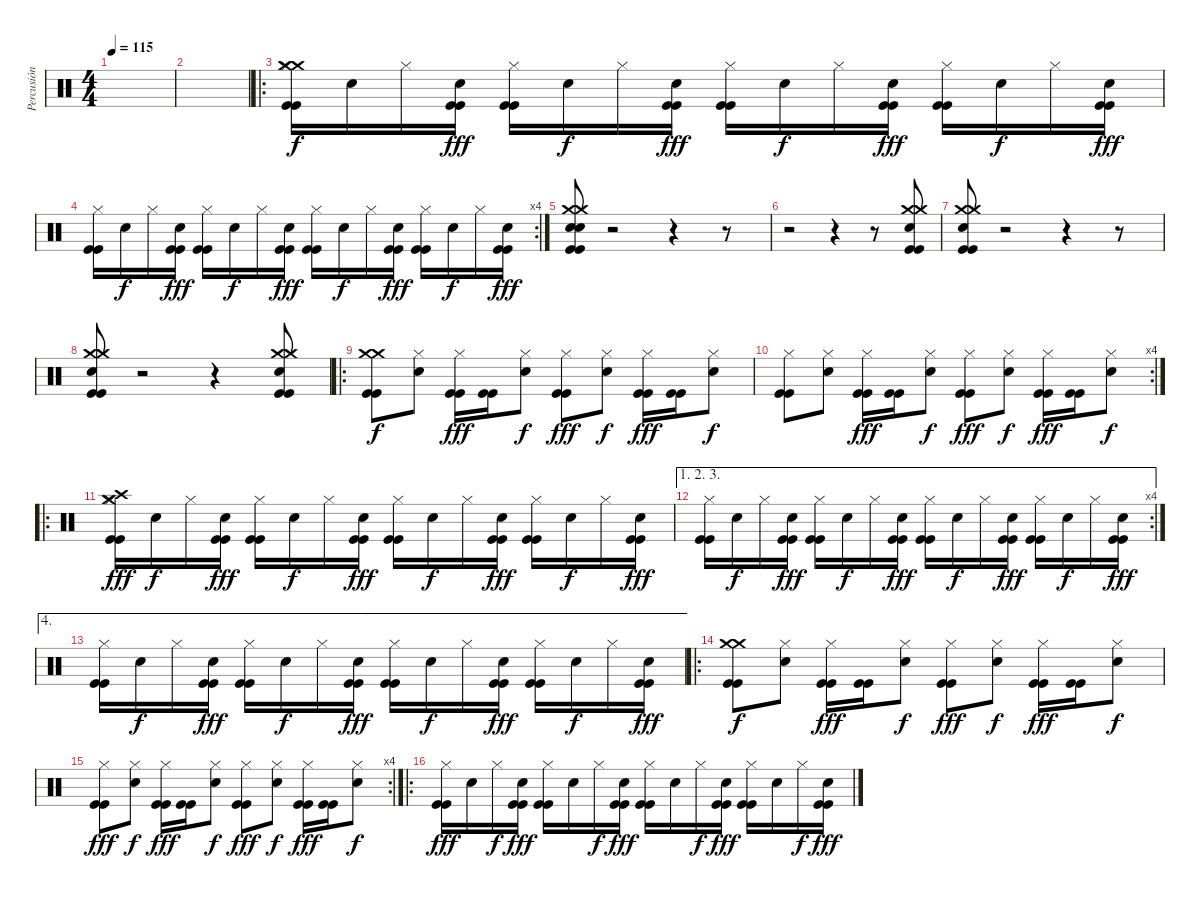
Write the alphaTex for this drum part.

\track ("Percusión" "Percusión") {instrument percussion}
\staff {score}
\articulation defaults
\ts (4 4)
\tempo 115
\clef neutral
\ks c
|
|
\ro
("Kick (hit)" "Kick (hit)" "Crash medium (hit)" "Crash medium (hit)" "Hi-Hat (closed)").16 "Electric Snare (hit)".16{dy f} "Hi-Hat (closed)".16 ("Kick (hit)" "Kick (hit)" "Electric Snare (hit)").16{dy fff} ("Kick (hit)" "Kick (hit)" "Hi-Hat (closed)").16 "Electric Snare (hit)".16{dy f} "Hi-Hat (closed)".16 ("Kick (hit)" "Kick (hit)" "Electric Snare (hit)").16{dy fff} ("Kick (hit)" "Kick (hit)" "Hi-Hat (closed)").16 "Electric Snare (hit)".16{dy f} "Hi-Hat (closed)".16 ("Kick (hit)" "Kick (hit)" "Electric Snare (hit)").16{dy fff} ("Kick (hit)" "Kick (hit)" "Hi-Hat (closed)").16 "Electric Snare (hit)".16{dy f} "Hi-Hat (closed)".16 ("Kick (hit)" "Kick (hit)" "Electric Snare (hit)").16{dy fff} |
\rc 4
("Kick (hit)" "Kick (hit)" "Hi-Hat (closed)").16 "Electric Snare (hit)".16{dy f} "Hi-Hat (closed)".16 ("Kick (hit)" "Kick (hit)" "Electric Snare (hit)").16{dy fff} ("Kick (hit)" "Kick (hit)" "Hi-Hat (closed)").16 "Electric Snare (hit)".16{dy f} "Hi-Hat (closed)".16 ("Kick (hit)" "Kick (hit)" "Electric Snare (hit)").16{dy fff} ("Kick (hit)" "Kick (hit)" "Hi-Hat (closed)").16 "Electric Snare (hit)".16{dy f} "Hi-Hat (closed)".16 ("Kick (hit)" "Kick (hit)" "Electric Snare (hit)").16{dy fff} ("Kick (hit)" "Kick (hit)" "Hi-Hat (closed)").16 "Electric Snare (hit)".16{dy f} "Hi-Hat (closed)".16 ("Kick (hit)" "Kick (hit)" "Electric Snare (hit)").16{dy fff} |
("Kick (hit)" "Kick (hit)" "Crash medium (hit)" "Crash medium (hit)" "Electric Snare (hit)" "Electric Snare (hit)").8 r.2 r.4 r.8 |
r.2 r.4 r.8 ("Kick (hit)" "Kick (hit)" "Crash medium (hit)" "Crash medium (hit)" "Electric Snare (hit)").8 |
("Kick (hit)" "Kick (hit)" "Crash medium (hit)" "Crash medium (hit)" "Electric Snare (hit)").8 r.2 r.4 r.8 |
("Kick (hit)" "Kick (hit)" "Crash medium (hit)" "Crash medium (hit)" "Electric Snare (hit)").8 r.2 r.4 ("Kick (hit)" "Kick (hit)" "Crash medium (hit)" "Crash medium (hit)" "Electric Snare (hit)").8 |
\ro
("Kick (hit)" "Kick (hit)" "Crash medium (hit)" "Crash medium (hit)").8{dy f} ("Hi-Hat (closed)" "Electric Snare (hit)").8 ("Kick (hit)" "Kick (hit)" "Hi-Hat (closed)").16{dy fff} ("Kick (hit)" "Kick (hit)").16 ("Hi-Hat (closed)" "Electric Snare (hit)").8{dy f} ("Kick (hit)" "Kick (hit)" "Hi-Hat (closed)").8{dy fff} ("Hi-Hat (closed)" "Electric Snare (hit)").8{dy f} ("Kick (hit)" "Kick (hit)" "Hi-Hat (closed)").16{dy fff} ("Kick (hit)" "Kick (hit)").16 ("Hi-Hat (closed)" "Electric Snare (hit)").8{dy f} |
\rc 4
("Kick (hit)" "Kick (hit)" "Hi-Hat (closed)").8 ("Hi-Hat (closed)" "Electric Snare (hit)").8 ("Kick (hit)" "Kick (hit)" "Hi-Hat (closed)").16{dy fff} ("Kick (hit)" "Kick (hit)").16 ("Hi-Hat (closed)" "Electric Snare (hit)").8{dy f} ("Kick (hit)" "Kick (hit)" "Hi-Hat (closed)").8{dy fff} ("Hi-Hat (closed)" "Electric Snare (hit)").8{dy f} ("Kick (hit)" "Kick (hit)" "Hi-Hat (closed)").16{dy fff} ("Kick (hit)" "Kick (hit)").16 ("Hi-Hat (closed)" "Electric Snare (hit)").8{dy f} |
\ro
("Kick (hit)" "Kick (hit)" "Crash medium (hit)" "Crash high (hit)" "Hi-Hat (closed)").16{dy fff} "Electric Snare (hit)".16{dy f} "Hi-Hat (closed)".16 ("Kick (hit)" "Kick (hit)" "Electric Snare (hit)").16{dy fff} ("Kick (hit)" "Kick (hit)" "Hi-Hat (closed)").16 "Electric Snare (hit)".16{dy f} "Hi-Hat (closed)".16 ("Kick (hit)" "Kick (hit)" "Electric Snare (hit)").16{dy fff} ("Kick (hit)" "Kick (hit)" "Hi-Hat (closed)").16 "Electric Snare (hit)".16{dy f} "Hi-Hat (closed)".16 ("Kick (hit)" "Kick (hit)" "Electric Snare (hit)").16{dy fff} ("Kick (hit)" "Kick (hit)" "Hi-Hat (closed)").16 "Electric Snare (hit)".16{dy f} "Hi-Hat (closed)".16 ("Kick (hit)" "Kick (hit)" "Electric Snare (hit)").16{dy fff} |
\ae (1 2 3)
\rc 4
("Kick (hit)" "Kick (hit)" "Hi-Hat (closed)").16 "Electric Snare (hit)".16{dy f} "Hi-Hat (closed)".16 ("Kick (hit)" "Kick (hit)" "Electric Snare (hit)").16{dy fff} ("Kick (hit)" "Kick (hit)" "Hi-Hat (closed)").16 "Electric Snare (hit)".16{dy f} "Hi-Hat (closed)".16 ("Kick (hit)" "Kick (hit)" "Electric Snare (hit)").16{dy fff} ("Kick (hit)" "Kick (hit)" "Hi-Hat (closed)").16 "Electric Snare (hit)".16{dy f} "Hi-Hat (closed)".16 ("Kick (hit)" "Kick (hit)" "Electric Snare (hit)").16{dy fff} ("Kick (hit)" "Kick (hit)" "Hi-Hat (closed)").16 "Electric Snare (hit)".16{dy f} "Hi-Hat (closed)".16 ("Kick (hit)" "Kick (hit)" "Electric Snare (hit)").16{dy fff} |
\ae 4
("Kick (hit)" "Kick (hit)" "Hi-Hat (closed)").16 "Electric Snare (hit)".16{dy f} "Hi-Hat (closed)".16 ("Kick (hit)" "Kick (hit)" "Electric Snare (hit)").16{dy fff} ("Kick (hit)" "Kick (hit)" "Hi-Hat (closed)").16 "Electric Snare (hit)".16{dy f} "Hi-Hat (closed)".16 ("Kick (hit)" "Kick (hit)" "Electric Snare (hit)").16{dy fff} ("Kick (hit)" "Kick (hit)" "Hi-Hat (closed)").16 "Electric Snare (hit)".16{dy f} "Hi-Hat (closed)".16 ("Kick (hit)" "Kick (hit)" "Electric Snare (hit)").16{dy fff} ("Kick (hit)" "Kick (hit)" "Hi-Hat (closed)").16 "Electric Snare (hit)".16{dy f} "Hi-Hat (closed)".16 ("Kick (hit)" "Kick (hit)" "Electric Snare (hit)").16{dy fff} |
\ro
("Kick (hit)" "Kick (hit)" "Crash medium (hit)" "Crash medium (hit)").8{dy f} ("Hi-Hat (closed)" "Electric Snare (hit)").8 ("Kick (hit)" "Kick (hit)" "Hi-Hat (closed)").16{dy fff} ("Kick (hit)" "Kick (hit)").16 ("Hi-Hat (closed)" "Electric Snare (hit)").8{dy f} ("Kick (hit)" "Kick (hit)" "Hi-Hat (closed)").8{dy fff} ("Hi-Hat (closed)" "Electric Snare (hit)").8{dy f} ("Kick (hit)" "Kick (hit)" "Hi-Hat (closed)").16{dy fff} ("Kick (hit)" "Kick (hit)").16 ("Hi-Hat (closed)" "Electric Snare (hit)").8{dy f} |
\rc 4
("Kick (hit)" "Kick (hit)" "Hi-Hat (closed)").8{dy fff} ("Hi-Hat (closed)" "Electric Snare (hit)").8{dy f} ("Kick (hit)" "Kick (hit)" "Hi-Hat (closed)").16{dy fff} ("Kick (hit)" "Kick (hit)").16 ("Hi-Hat (closed)" "Electric Snare (hit)").8{dy f} ("Kick (hit)" "Kick (hit)" "Hi-Hat (closed)").8{dy fff} ("Hi-Hat (closed)" "Electric Snare (hit)").8{dy f} ("Kick (hit)" "Kick (hit)" "Hi-Hat (closed)").16{dy fff} ("Kick (hit)" "Kick (hit)").16 ("Hi-Hat (closed)" "Electric Snare (hit)").8{dy f} |
\ro
("Kick (hit)" "Kick (hit)" "Hi-Hat (closed)").16{dy fff} "Electric Snare (hit)".16 "Hi-Hat (closed)".16{dy f} ("Kick (hit)" "Kick (hit)" "Electric Snare (hit)").16{dy fff} ("Kick (hit)" "Kick (hit)" "Hi-Hat (closed)").16 "Electric Snare (hit)".16 "Hi-Hat (closed)".16{dy f} ("Kick (hit)" "Kick (hit)" "Electric Snare (hit)").16{dy fff} ("Kick (hit)" "Kick (hit)" "Hi-Hat (closed)").16 "Electric Snare (hit)".16 "Hi-Hat (closed)".16{dy f} ("Kick (hit)" "Kick (hit)" "Electric Snare (hit)").16{dy fff} ("Kick (hit)" "Kick (hit)" "Hi-Hat (closed)").16 "Electric Snare (hit)".16 "Hi-Hat (closed)".16{dy f} ("Kick (hit)" "Kick (hit)" "Electric Snare (hit)").16{dy fff}
